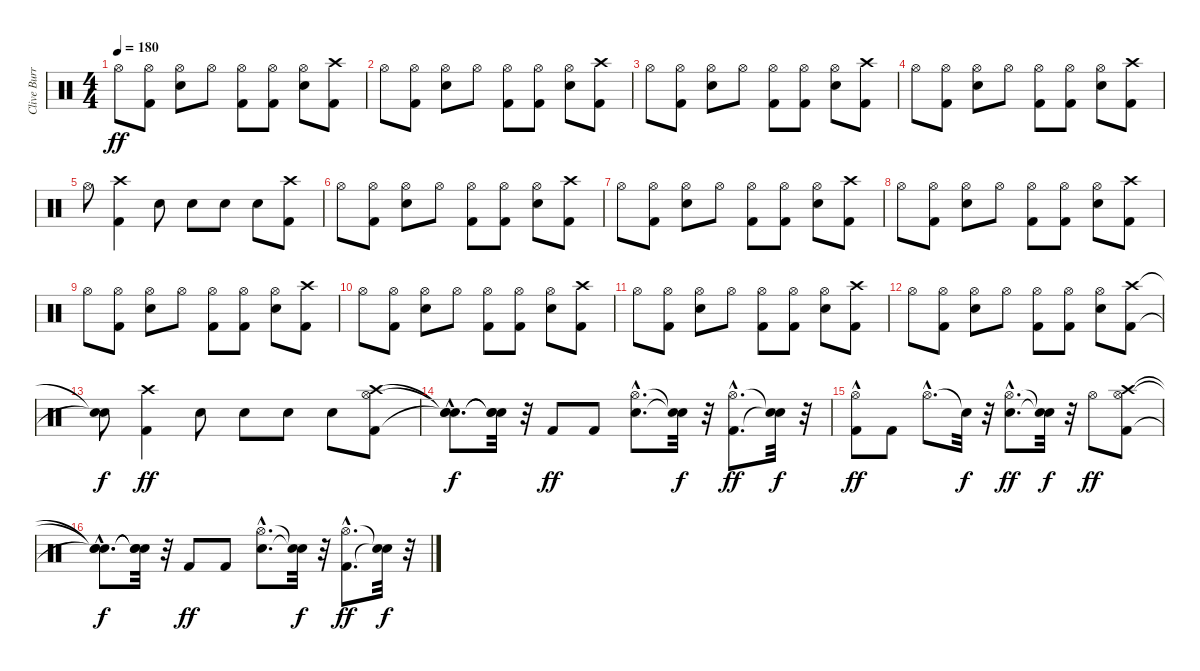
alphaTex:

\track ("Clive Burr" "Clive Burr") {instrument percussion}
\staff {score}
\articulation defaults
\ts (4 4)
\tempo 180
\clef neutral
\ks c "Hi-Hat (open)".8{dy ff}
("Kick (hit) 2" "Hi-Hat (open)").8 ("Snare (hit) 2" "Hi-Hat (open)").8 "Hi-Hat (open)".8 ("Kick (hit) 2" "Hi-Hat (open)").8 ("Kick (hit) 2" "Hi-Hat (open)").8 ("Snare (hit) 2" "Hi-Hat (open)").8 ("Kick (hit) 2" "Crash high (hit)").8 |
"Hi-Hat (open)".8 ("Kick (hit) 2" "Hi-Hat (open)").8 ("Snare (hit) 2" "Hi-Hat (open)").8 "Hi-Hat (open)".8 ("Kick (hit) 2" "Hi-Hat (open)").8 ("Kick (hit) 2" "Hi-Hat (open)").8 ("Snare (hit) 2" "Hi-Hat (open)").8 ("Kick (hit) 2" "Crash high (hit)").8 |
"Hi-Hat (open)".8 ("Kick (hit) 2" "Hi-Hat (open)").8 ("Snare (hit) 2" "Hi-Hat (open)").8 "Hi-Hat (open)".8 ("Kick (hit) 2" "Hi-Hat (open)").8 ("Kick (hit) 2" "Hi-Hat (open)").8 ("Snare (hit) 2" "Hi-Hat (open)").8 ("Kick (hit) 2" "Crash high (hit)").8 |
"Hi-Hat (open)".8 ("Kick (hit) 2" "Hi-Hat (open)").8 ("Snare (hit) 2" "Hi-Hat (open)").8 "Hi-Hat (open)".8 ("Kick (hit) 2" "Hi-Hat (open)").8 ("Kick (hit) 2" "Hi-Hat (open)").8 ("Snare (hit) 2" "Hi-Hat (open)").8 ("Kick (hit) 2" "Crash high (hit)").8 |
"Hi-Hat (open)".8 ("Kick (hit) 2" "Crash high (hit)").4 "Snare (hit) 2".8 "Snare (hit) 2".8 "Snare (hit) 2".8 "Snare (hit) 2".8 ("Kick (hit) 2" "Crash high (hit)").8 |
"Hi-Hat (open)".8 ("Kick (hit) 2" "Hi-Hat (open)").8 ("Snare (hit) 2" "Hi-Hat (open)").8 "Hi-Hat (open)".8 ("Kick (hit) 2" "Hi-Hat (open)").8 ("Kick (hit) 2" "Hi-Hat (open)").8 ("Snare (hit) 2" "Hi-Hat (open)").8 ("Kick (hit) 2" "Crash high (hit)").8 |
"Hi-Hat (open)".8 ("Kick (hit) 2" "Hi-Hat (open)").8 ("Snare (hit) 2" "Hi-Hat (open)").8 "Hi-Hat (open)".8 ("Kick (hit) 2" "Hi-Hat (open)").8 ("Kick (hit) 2" "Hi-Hat (open)").8 ("Snare (hit) 2" "Hi-Hat (open)").8 ("Kick (hit) 2" "Crash high (hit)").8 |
"Hi-Hat (open)".8 ("Kick (hit) 2" "Hi-Hat (open)").8 ("Snare (hit) 2" "Hi-Hat (open)").8 "Hi-Hat (open)".8 ("Kick (hit) 2" "Hi-Hat (open)").8 ("Kick (hit) 2" "Hi-Hat (open)").8 ("Snare (hit) 2" "Hi-Hat (open)").8 ("Kick (hit) 2" "Crash high (hit)").8 |
"Hi-Hat (open)".8 ("Kick (hit) 2" "Hi-Hat (open)").8 ("Snare (hit) 2" "Hi-Hat (open)").8 "Hi-Hat (open)".8 ("Kick (hit) 2" "Hi-Hat (open)").8 ("Kick (hit) 2" "Hi-Hat (open)").8 ("Snare (hit) 2" "Hi-Hat (open)").8 ("Kick (hit) 2" "Crash high (hit)").8 |
"Hi-Hat (open)".8 ("Kick (hit) 2" "Hi-Hat (open)").8 ("Snare (hit) 2" "Hi-Hat (open)").8 "Hi-Hat (open)".8 ("Kick (hit) 2" "Hi-Hat (open)").8 ("Kick (hit) 2" "Hi-Hat (open)").8 ("Snare (hit) 2" "Hi-Hat (open)").8 ("Kick (hit) 2" "Crash high (hit)").8 |
"Hi-Hat (open)".8 ("Kick (hit) 2" "Hi-Hat (open)").8 ("Snare (hit) 2" "Hi-Hat (open)").8 "Hi-Hat (open)".8 ("Kick (hit) 2" "Hi-Hat (open)").8 ("Kick (hit) 2" "Hi-Hat (open)").8 ("Snare (hit) 2" "Hi-Hat (open)").8 ("Kick (hit) 2" "Crash high (hit)").8 |
"Hi-Hat (open)".8 ("Kick (hit) 2" "Hi-Hat (open)").8 ("Snare (hit) 2" "Hi-Hat (open)").8 "Hi-Hat (open)".8 ("Kick (hit) 2" "Hi-Hat (open)").8 ("Kick (hit) 2" "Hi-Hat (open)").8 ("Snare (hit) 2" "Hi-Hat (open)").8 ("Kick (hit) 2" "Crash high (hit)").8 |
("Snare (hit)"{t} "Snare (hit)"{t}).8{dy f} ("Kick (hit) 2" "Crash high (hit)").4{dy ff} "Snare (hit) 2".8 "Snare (hit) 2".8 "Snare (hit) 2".8 "Snare (hit) 2".8 ("Kick (hit) 2" "Hi-Hat (open)" "Crash high (hit)").8 |
("Snare (hit)"{hac t} "Snare (hit)"{hac t} "Snare (hit)"{hac t}).8{d dy f} ("Snare (hit)"{t} "Snare (hit)"{t} "Snare (hit)"{t}).32 r.32 "Kick (hit) 2".8{dy ff} "Kick (hit) 2".8 ("Snare (hit) 2"{hac} "Hi-Hat (open)"{hac}).8{d} ("Snare (hit)"{t} "Snare (hit)"{t}).32{dy f} r.32 ("Kick (hit) 2"{hac} "Hi-Hat (open)"{hac}).8{d dy ff} ("Snare (hit)"{t} "Snare (hit)"{t}).32{dy f} r.32 |
("Kick (hit) 2" "Hi-Hat (open)"{hac}).8{dy ff} "Kick (hit) 2".8 "Hi-Hat (open)"{hac}.8{d} "Snare (hit)"{t}.32{dy f} r.32 ("Snare (hit) 2"{hac} "Hi-Hat (open)"{hac}).8{d dy ff} ("Snare (hit)"{t} "Snare (hit)"{t}).32{dy f} r.32 "Hi-Hat (open)".8{dy ff} ("Kick (hit) 2" "Hi-Hat (open)" "Crash high (hit)").8 |
("Snare (hit)"{hac t} "Snare (hit)"{hac t} "Snare (hit)"{hac t}).8{d dy f} ("Snare (hit)"{t} "Snare (hit)"{t} "Snare (hit)"{t}).32 r.32 "Kick (hit) 2".8{dy ff} "Kick (hit) 2".8 ("Snare (hit) 2"{hac} "Hi-Hat (open)"{hac}).8{d} ("Snare (hit)"{t} "Snare (hit)"{t}).32{dy f} r.32 ("Kick (hit) 2"{hac} "Hi-Hat (open)"{hac}).8{d dy ff} ("Snare (hit)"{t} "Snare (hit)"{t}).32{dy f} r.32
